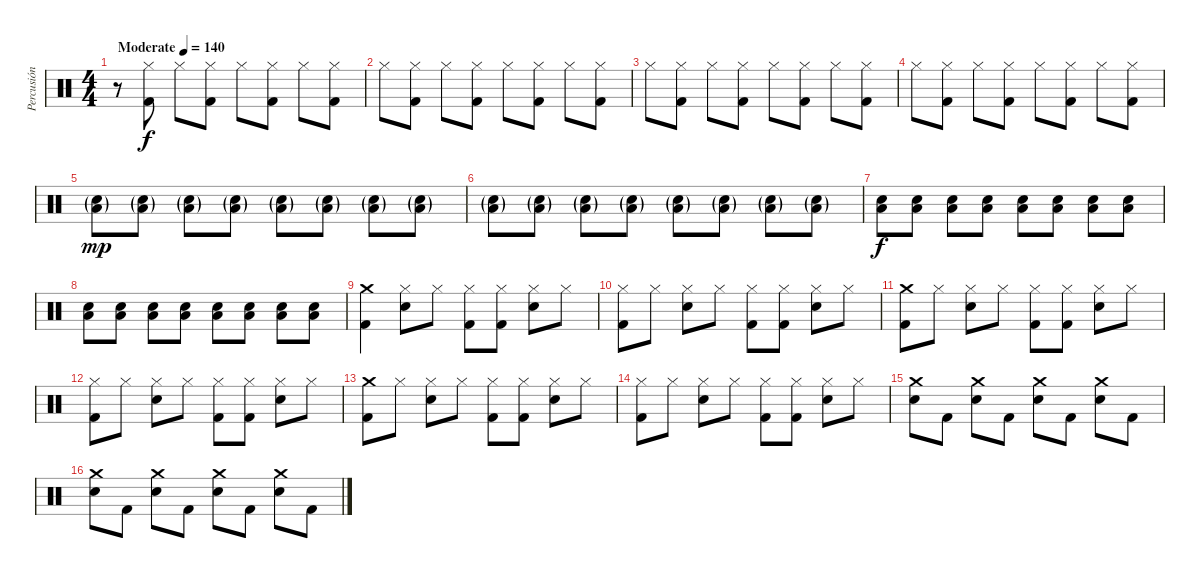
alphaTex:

\track ("Percusión" "Percusión") {instrument percussion}
\staff {score}
\articulation defaults
\ts (4 4)
\tempo (140 "Moderate")
\clef neutral
\ks c
r.8{dy f} ("Hi-Hat (closed)" "Kick (hit) 2").8 "Hi-Hat (closed)".8 ("Hi-Hat (closed)" "Kick (hit) 2").8 "Hi-Hat (closed)".8 ("Hi-Hat (closed)" "Kick (hit) 2").8 "Hi-Hat (closed)".8 ("Hi-Hat (closed)" "Kick (hit) 2").8 |
"Hi-Hat (closed)".8 ("Hi-Hat (closed)" "Kick (hit) 2").8 "Hi-Hat (closed)".8 ("Hi-Hat (closed)" "Kick (hit) 2").8 "Hi-Hat (closed)".8 ("Hi-Hat (closed)" "Kick (hit) 2").8 "Hi-Hat (closed)".8 ("Hi-Hat (closed)" "Kick (hit) 2").8 |
"Hi-Hat (closed)".8 ("Hi-Hat (closed)" "Kick (hit) 2").8 "Hi-Hat (closed)".8 ("Hi-Hat (closed)" "Kick (hit) 2").8 "Hi-Hat (closed)".8 ("Hi-Hat (closed)" "Kick (hit) 2").8 "Hi-Hat (closed)".8 ("Hi-Hat (closed)" "Kick (hit) 2").8 |
"Hi-Hat (closed)".8 ("Hi-Hat (closed)" "Kick (hit) 2").8 "Hi-Hat (closed)".8 ("Hi-Hat (closed)" "Kick (hit) 2").8 "Hi-Hat (closed)".8 ("Hi-Hat (closed)" "Kick (hit) 2").8 "Hi-Hat (closed)".8 ("Hi-Hat (closed)" "Kick (hit) 2").8 |
("Snare (hit) 2"{g} "Low Floor Tom (hit)"{g}).8{dy mp} ("Snare (hit) 2"{g} "Low Floor Tom (hit)"{g}).8 ("Snare (hit) 2"{g} "Low Floor Tom (hit)"{g}).8 ("Snare (hit) 2"{g} "Low Floor Tom (hit)"{g}).8 ("Snare (hit) 2"{g} "Low Floor Tom (hit)"{g}).8 ("Snare (hit) 2"{g} "Low Floor Tom (hit)"{g}).8 ("Snare (hit) 2"{g} "Low Floor Tom (hit)"{g}).8 ("Snare (hit) 2"{g} "Low Floor Tom (hit)"{g}).8 |
("Snare (hit) 2"{g} "Low Floor Tom (hit)"{g}).8 ("Snare (hit) 2"{g} "Low Floor Tom (hit)"{g}).8 ("Snare (hit) 2"{g} "Low Floor Tom (hit)"{g}).8 ("Snare (hit) 2"{g} "Low Floor Tom (hit)"{g}).8 ("Snare (hit) 2"{g} "Low Floor Tom (hit)"{g}).8 ("Snare (hit) 2"{g} "Low Floor Tom (hit)"{g}).8 ("Snare (hit) 2"{g} "Low Floor Tom (hit)"{g}).8 ("Snare (hit) 2"{g} "Low Floor Tom (hit)"{g}).8 |
("Low Floor Tom (hit)" "Snare (hit) 2").8{dy f} ("Low Floor Tom (hit)" "Snare (hit) 2").8 ("Low Floor Tom (hit)" "Snare (hit) 2").8 ("Low Floor Tom (hit)" "Snare (hit) 2").8 ("Low Floor Tom (hit)" "Snare (hit) 2").8 ("Low Floor Tom (hit)" "Snare (hit) 2").8 ("Low Floor Tom (hit)" "Snare (hit) 2").8 ("Low Floor Tom (hit)" "Snare (hit) 2").8 |
("Low Floor Tom (hit)" "Snare (hit) 2").8 ("Low Floor Tom (hit)" "Snare (hit) 2").8 ("Low Floor Tom (hit)" "Snare (hit) 2").8 ("Low Floor Tom (hit)" "Snare (hit) 2").8 ("Low Floor Tom (hit)" "Snare (hit) 2").8 ("Low Floor Tom (hit)" "Snare (hit) 2").8 ("Low Floor Tom (hit)" "Snare (hit) 2").8 ("Low Floor Tom (hit)" "Snare (hit) 2").8 |
("Crash medium (hit)" "Kick (hit) 2").4 ("Hi-Hat (closed)" "Snare (hit) 2").8 "Hi-Hat (closed)".8 ("Hi-Hat (closed)" "Kick (hit) 2").8 ("Hi-Hat (closed)" "Kick (hit) 2").8 ("Hi-Hat (closed)" "Snare (hit) 2").8 "Hi-Hat (closed)".8 |
("Hi-Hat (closed)" "Kick (hit) 2").8 "Hi-Hat (closed)".8 ("Hi-Hat (closed)" "Snare (hit) 2").8 "Hi-Hat (closed)".8 ("Hi-Hat (closed)" "Kick (hit) 2").8 ("Hi-Hat (closed)" "Kick (hit) 2").8 ("Hi-Hat (closed)" "Snare (hit) 2").8 "Hi-Hat (closed)".8 |
("Crash medium (hit)" "Kick (hit) 2").8 "Hi-Hat (closed)".8 ("Hi-Hat (closed)" "Snare (hit) 2").8 "Hi-Hat (closed)".8 ("Hi-Hat (closed)" "Kick (hit) 2").8 ("Hi-Hat (closed)" "Kick (hit) 2").8 ("Hi-Hat (closed)" "Snare (hit) 2").8 "Hi-Hat (closed)".8 |
("Hi-Hat (closed)" "Kick (hit) 2").8 "Hi-Hat (closed)".8 ("Hi-Hat (closed)" "Snare (hit) 2").8 "Hi-Hat (closed)".8 ("Hi-Hat (closed)" "Kick (hit) 2").8 ("Hi-Hat (closed)" "Kick (hit) 2").8 ("Hi-Hat (closed)" "Snare (hit) 2").8 "Hi-Hat (closed)".8 |
("Crash medium (hit)" "Kick (hit) 2").8 "Hi-Hat (closed)".8 ("Hi-Hat (closed)" "Snare (hit) 2").8 "Hi-Hat (closed)".8 ("Hi-Hat (closed)" "Kick (hit) 2").8 ("Hi-Hat (closed)" "Kick (hit) 2").8 ("Hi-Hat (closed)" "Snare (hit) 2").8 "Hi-Hat (closed)".8 |
("Hi-Hat (closed)" "Kick (hit) 2").8 "Hi-Hat (closed)".8 ("Hi-Hat (closed)" "Snare (hit) 2").8 "Hi-Hat (closed)".8 ("Hi-Hat (closed)" "Kick (hit) 2").8 ("Hi-Hat (closed)" "Kick (hit) 2").8 ("Hi-Hat (closed)" "Snare (hit) 2").8 "Hi-Hat (closed)".8 |
("Crash medium (hit)" "Snare (hit) 2").8 "Kick (hit) 2".8 ("Crash medium (hit)" "Snare (hit) 2").8 "Kick (hit) 2".8 ("Crash medium (hit)" "Snare (hit) 2").8 "Kick (hit) 2".8 ("Crash medium (hit)" "Snare (hit) 2").8 "Kick (hit) 2".8 |
("Crash medium (hit)" "Snare (hit) 2").8 "Kick (hit) 2".8 ("Crash medium (hit)" "Snare (hit) 2").8 "Kick (hit) 2".8 ("Crash medium (hit)" "Snare (hit) 2").8 "Kick (hit) 2".8 ("Crash medium (hit)" "Snare (hit) 2").8 "Kick (hit) 2".8
